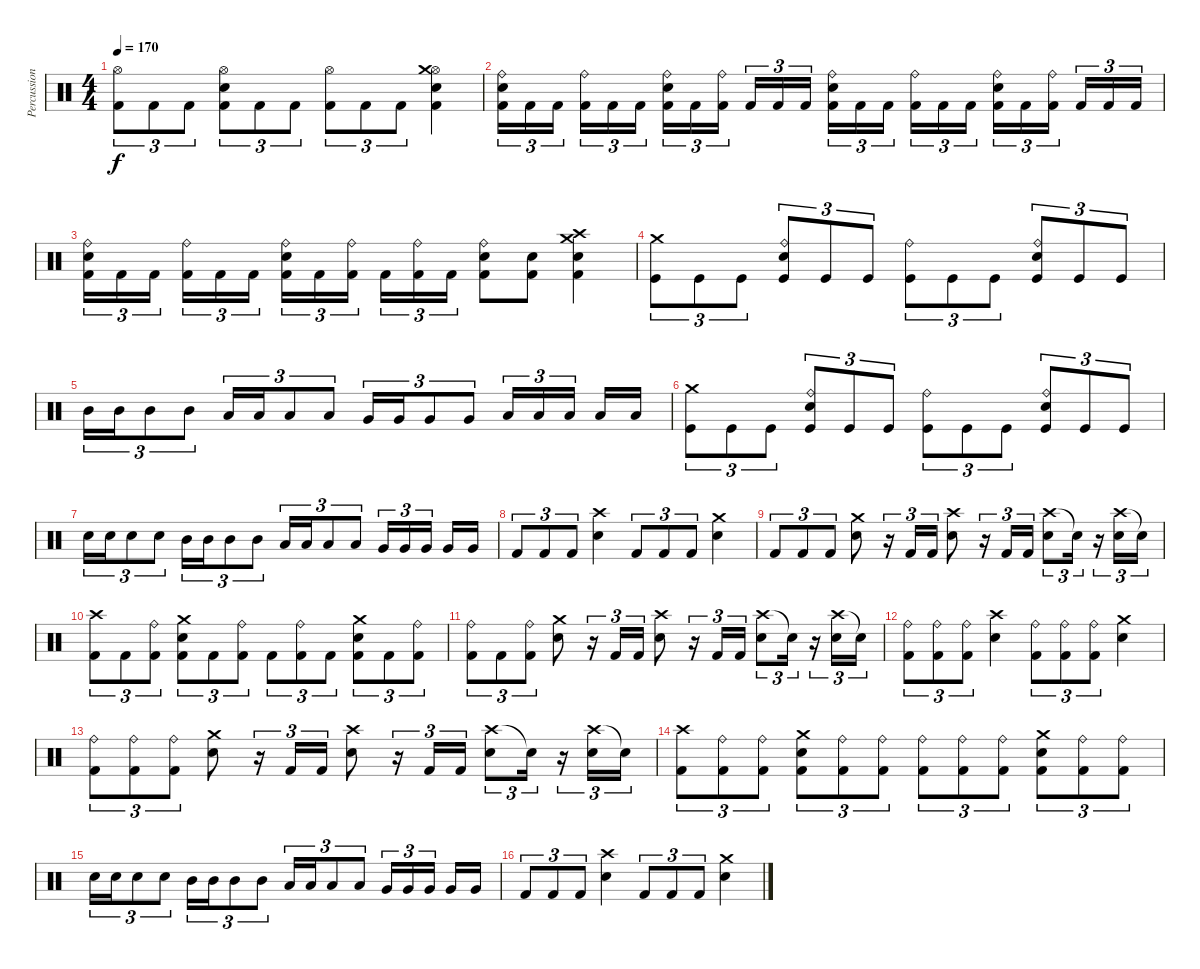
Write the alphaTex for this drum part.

\track ("Percussions" "Percussion") {instrument percussion}
\staff {score}
\articulation defaults
\ts (4 4)
\tempo 170
\clef neutral
\ks c
("Hi-Hat (open)" "Kick (hit) 2").8{tu (3 2) dy f} "Kick (hit) 2".8{tu (3 2)} "Kick (hit) 2".8{tu (3 2)} ("Hi-Hat (open)" "Electric Snare (hit)" "Kick (hit) 2").8{tu (3 2)} "Kick (hit) 2".8{tu (3 2)} "Kick (hit) 2".8{tu (3 2)} ("Hi-Hat (open)" "Kick (hit) 2").8{tu (3 2)} "Kick (hit) 2".8{tu (3 2)} "Kick (hit) 2".8{tu (3 2)} ("Hi-Hat (open)" "Crash medium (hit)" "Electric Snare (hit)" "Kick (hit) 2").4 |
("Ride (bell)" "Electric Snare (hit)" "Kick (hit) 2").16{tu (3 2)} "Kick (hit) 2".16{tu (3 2)} "Kick (hit) 2".16{tu (3 2)} ("Ride (bell)" "Kick (hit) 2").16{tu (3 2)} "Kick (hit) 2".16{tu (3 2)} "Kick (hit) 2".16{tu (3 2)} ("Ride (bell)" "Electric Snare (hit)" "Kick (hit) 2").16{tu (3 2)} "Kick (hit) 2".16{tu (3 2)} ("Ride (bell)" "Kick (hit) 2").16{tu (3 2)} "Kick (hit) 2".16{tu (3 2)} "Kick (hit) 2".16{tu (3 2)} "Kick (hit) 2".16{tu (3 2)} ("Ride (bell)" "Electric Snare (hit)" "Kick (hit) 2").16{tu (3 2)} "Kick (hit) 2".16{tu (3 2)} "Kick (hit) 2".16{tu (3 2)} ("Ride (bell)" "Kick (hit) 2").16{tu (3 2)} "Kick (hit) 2".16{tu (3 2)} "Kick (hit) 2".16{tu (3 2)} ("Ride (bell)" "Electric Snare (hit)" "Kick (hit) 2").16{tu (3 2)} "Kick (hit) 2".16{tu (3 2)} ("Ride (bell)" "Kick (hit) 2").16{tu (3 2)} "Kick (hit) 2".16{tu (3 2)} "Kick (hit) 2".16{tu (3 2)} "Kick (hit) 2".16{tu (3 2)} |
("Ride (bell)" "Electric Snare (hit)" "Kick (hit) 2").16{tu (3 2)} "Kick (hit) 2".16{tu (3 2)} "Kick (hit) 2".16{tu (3 2)} ("Ride (bell)" "Kick (hit) 2").16{tu (3 2)} "Kick (hit) 2".16{tu (3 2)} "Kick (hit) 2".16{tu (3 2)} ("Ride (bell)" "Electric Snare (hit)" "Kick (hit) 2").16{tu (3 2)} "Kick (hit) 2".16{tu (3 2)} ("Ride (bell)" "Kick (hit) 2").16{tu (3 2)} "Kick (hit) 2".16{tu (3 2)} ("Ride (bell)" "Kick (hit) 2").16{tu (3 2)} "Kick (hit) 2".16{tu (3 2)} ("Ride (bell)" "Electric Snare (hit)" "Kick (hit) 2").8 ("Electric Snare (hit)" "Kick (hit) 2").8 ("Crash high (hit)" "Crash medium (hit)" "Electric Snare (hit)" "Kick (hit) 2").4 |
("Crash medium (hit)" "Kick (hit)").8{tu (3 2)} "Kick (hit)".8{tu (3 2)} "Kick (hit)".8{tu (3 2)} ("Ride (bell)" "Electric Snare (hit)" "Kick (hit)").8{tu (3 2)} "Kick (hit)".8{tu (3 2)} "Kick (hit)".8{tu (3 2)} ("Ride (bell)" "Kick (hit)").8{tu (3 2)} "Kick (hit)".8{tu (3 2)} "Kick (hit)".8{tu (3 2)} ("Ride (bell)" "Electric Snare (hit)" "Kick (hit)").8{tu (3 2)} "Kick (hit)".8{tu (3 2)} "Kick (hit)".8{tu (3 2)} |
"Mid Tom (hit)".16{tu (3 2)} "Mid Tom (hit)".16{tu (3 2)} "Mid Tom (hit)".8{tu (3 2)} "Mid Tom (hit)".8{tu (3 2)} "Low Tom (hit)".16{tu (3 2)} "Low Tom (hit)".16{tu (3 2)} "Low Tom (hit)".8{tu (3 2)} "Low Tom (hit)".8{tu (3 2)} "Very Low Tom (hit)".16{tu (3 2)} "Very Low Tom (hit)".16{tu (3 2)} "Very Low Tom (hit)".8{tu (3 2)} "Very Low Tom (hit)".8{tu (3 2)} "Low Floor Tom (hit)".16{tu (3 2)} "Low Floor Tom (hit)".16{tu (3 2)} "Low Floor Tom (hit)".16{tu (3 2)} "Low Floor Tom (hit)".16 "Low Floor Tom (hit)".16 |
("Crash medium (hit)" "Kick (hit)").8{tu (3 2)} "Kick (hit)".8{tu (3 2)} "Kick (hit)".8{tu (3 2)} ("Ride (bell)" "Electric Snare (hit)" "Kick (hit)").8{tu (3 2)} "Kick (hit)".8{tu (3 2)} "Kick (hit)".8{tu (3 2)} ("Ride (bell)" "Kick (hit)").8{tu (3 2)} "Kick (hit)".8{tu (3 2)} "Kick (hit)".8{tu (3 2)} ("Ride (bell)" "Electric Snare (hit)" "Kick (hit)").8{tu (3 2)} "Kick (hit)".8{tu (3 2)} "Kick (hit)".8{tu (3 2)} |
"Electric Snare (hit)".16{tu (3 2)} "Electric Snare (hit)".16{tu (3 2)} "Electric Snare (hit)".8{tu (3 2)} "Electric Snare (hit)".8{tu (3 2)} "Mid Tom (hit)".16{tu (3 2)} "Mid Tom (hit)".16{tu (3 2)} "Mid Tom (hit)".8{tu (3 2)} "Mid Tom (hit)".8{tu (3 2)} "Low Tom (hit)".16{tu (3 2)} "Low Tom (hit)".16{tu (3 2)} "Low Tom (hit)".8{tu (3 2)} "Low Tom (hit)".8{tu (3 2)} "Very Low Tom (hit)".16{tu (3 2)} "Very Low Tom (hit)".16{tu (3 2)} "Very Low Tom (hit)".16{tu (3 2)} "Very Low Tom (hit)".16 "Very Low Tom (hit)".16 |
"Kick (hit) 2".8{tu (3 2)} "Kick (hit) 2".8{tu (3 2)} "Kick (hit) 2".8{tu (3 2)} ("Crash high (hit)" "Electric Snare (hit)").4 "Kick (hit) 2".8{tu (3 2)} "Kick (hit) 2".8{tu (3 2)} "Kick (hit) 2".8{tu (3 2)} ("Crash medium (hit)" "Electric Snare (hit)").4 |
"Kick (hit) 2".8{tu (3 2)} "Kick (hit) 2".8{tu (3 2)} "Kick (hit) 2".8{tu (3 2)} ("Crash medium (hit)" "Electric Snare (hit)").8 r.16{tu (3 2)} "Kick (hit) 2".16{tu (3 2)} "Kick (hit) 2".16{tu (3 2)} ("Crash high (hit)" "Electric Snare (hit)").8 r.16{tu (3 2)} "Kick (hit) 2".16{tu (3 2)} "Kick (hit) 2".16{tu (3 2)} ("Crash high (hit)" "Electric Snare (hit)").8{tu (3 2)} "Electric Snare (hit)"{t}.16{tu (3 2)} r.16{tu (3 2)} ("Crash high (hit)" "Electric Snare (hit)").16{tu (3 2)} "Snare (hit)"{t}.16{tu (3 2)} |
("Crash high (hit)" "Kick (hit) 2").8{tu (3 2)} "Kick (hit) 2".8{tu (3 2)} ("Ride (bell)" "Kick (hit) 2").8{tu (3 2)} ("Crash medium (hit)" "Electric Snare (hit)" "Kick (hit) 2").8{tu (3 2)} "Kick (hit) 2".8{tu (3 2)} ("Ride (bell)" "Kick (hit) 2").8{tu (3 2)} "Kick (hit) 2".8{tu (3 2)} ("Ride (bell)" "Kick (hit) 2").8{tu (3 2)} "Kick (hit) 2".8{tu (3 2)} ("Crash medium (hit)" "Electric Snare (hit)" "Kick (hit) 2").8{tu (3 2)} "Kick (hit) 2".8{tu (3 2)} ("Ride (bell)" "Kick (hit) 2").8{tu (3 2)} |
("Ride (bell)" "Kick (hit) 2").8{tu (3 2)} "Kick (hit) 2".8{tu (3 2)} ("Ride (bell)" "Kick (hit) 2").8{tu (3 2)} ("Crash medium (hit)" "Electric Snare (hit)").8 r.16{tu (3 2)} "Kick (hit) 2".16{tu (3 2)} "Kick (hit) 2".16{tu (3 2)} ("Crash high (hit)" "Electric Snare (hit)").8 r.16{tu (3 2)} "Kick (hit) 2".16{tu (3 2)} "Kick (hit) 2".16{tu (3 2)} ("Crash high (hit)" "Electric Snare (hit)").8{tu (3 2)} "Electric Snare (hit)"{t}.16{tu (3 2)} r.16{tu (3 2)} ("Crash high (hit)" "Electric Snare (hit)").16{tu (3 2)} "Snare (hit)"{t}.16{tu (3 2)} |
("Ride (bell)" "Kick (hit) 2").8{tu (3 2)} ("Ride (bell)" "Kick (hit) 2").8{tu (3 2)} ("Ride (bell)" "Kick (hit) 2").8{tu (3 2)} ("Crash high (hit)" "Electric Snare (hit)").4 ("Ride (bell)" "Kick (hit) 2").8{tu (3 2)} ("Ride (bell)" "Kick (hit) 2").8{tu (3 2)} ("Ride (bell)" "Kick (hit) 2").8{tu (3 2)} ("Crash medium (hit)" "Electric Snare (hit)").4 |
("Ride (bell)" "Kick (hit) 2").8{tu (3 2)} ("Ride (bell)" "Kick (hit) 2").8{tu (3 2)} ("Ride (bell)" "Kick (hit) 2").8{tu (3 2)} ("Crash medium (hit)" "Electric Snare (hit)").8 r.16{tu (3 2)} "Kick (hit) 2".16{tu (3 2)} "Kick (hit) 2".16{tu (3 2)} ("Crash high (hit)" "Electric Snare (hit)").8 r.16{tu (3 2)} "Kick (hit) 2".16{tu (3 2)} "Kick (hit) 2".16{tu (3 2)} ("Crash high (hit)" "Electric Snare (hit)").8{tu (3 2)} "Electric Snare (hit)"{t}.16{tu (3 2)} r.16{tu (3 2)} ("Crash high (hit)" "Electric Snare (hit)").16{tu (3 2)} "Snare (hit)"{t}.16{tu (3 2)} |
("Crash high (hit)" "Kick (hit) 2").8{tu (3 2)} ("Ride (bell)" "Kick (hit) 2").8{tu (3 2)} ("Ride (bell)" "Kick (hit) 2").8{tu (3 2)} ("Crash medium (hit)" "Electric Snare (hit)" "Kick (hit) 2").8{tu (3 2)} ("Ride (bell)" "Kick (hit) 2").8{tu (3 2)} ("Ride (bell)" "Kick (hit) 2").8{tu (3 2)} ("Ride (bell)" "Kick (hit) 2").8{tu (3 2)} ("Ride (bell)" "Kick (hit) 2").8{tu (3 2)} ("Ride (bell)" "Kick (hit) 2").8{tu (3 2)} ("Crash medium (hit)" "Electric Snare (hit)" "Kick (hit) 2").8{tu (3 2)} ("Ride (bell)" "Kick (hit) 2").8{tu (3 2)} ("Ride (bell)" "Kick (hit) 2").8{tu (3 2)} |
"Electric Snare (hit)".16{tu (3 2)} "Electric Snare (hit)".16{tu (3 2)} "Electric Snare (hit)".8{tu (3 2)} "Electric Snare (hit)".8{tu (3 2)} "Mid Tom (hit)".16{tu (3 2)} "Mid Tom (hit)".16{tu (3 2)} "Mid Tom (hit)".8{tu (3 2)} "Mid Tom (hit)".8{tu (3 2)} "Low Tom (hit)".16{tu (3 2)} "Low Tom (hit)".16{tu (3 2)} "Low Tom (hit)".8{tu (3 2)} "Low Tom (hit)".8{tu (3 2)} "Very Low Tom (hit)".16{tu (3 2)} "Very Low Tom (hit)".16{tu (3 2)} "Very Low Tom (hit)".16{tu (3 2)} "Very Low Tom (hit)".16 "Very Low Tom (hit)".16 |
"Kick (hit) 2".8{tu (3 2)} "Kick (hit) 2".8{tu (3 2)} "Kick (hit) 2".8{tu (3 2)} ("Crash high (hit)" "Electric Snare (hit)").4 "Kick (hit) 2".8{tu (3 2)} "Kick (hit) 2".8{tu (3 2)} "Kick (hit) 2".8{tu (3 2)} ("Crash medium (hit)" "Electric Snare (hit)").4
